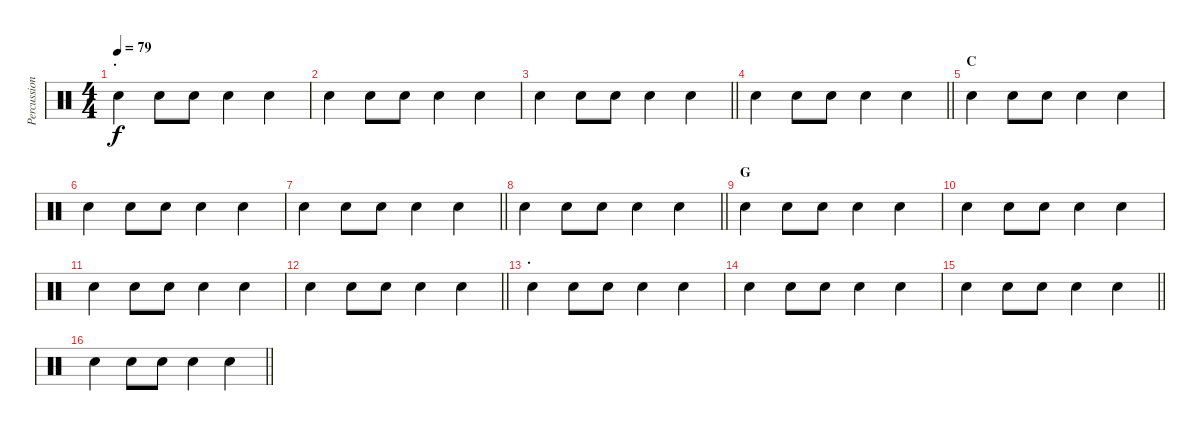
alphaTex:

\track ("Percussion" "Percussion") {instrument percussion}
\staff {score}
\articulation defaults
\ts (4 4)
\section ("" ".")
\tempo 79
\clef neutral
\ks c "Snare (hit) 2".4{dy f} "Snare (hit) 2".8 "Snare (hit) 2".8 "Snare (hit) 2".4 "Snare (hit) 2".4
|
"Snare (hit) 2".4 "Snare (hit) 2".8 "Snare (hit) 2".8 "Snare (hit) 2".4 "Snare (hit) 2".4 |
\barLineRight lightlight "Snare (hit) 2".4 "Snare (hit) 2".8 "Snare (hit) 2".8 "Snare (hit) 2".4 "Snare (hit) 2".4
|
\barLineRight lightlight "Snare (hit) 2".4 "Snare (hit) 2".8 "Snare (hit) 2".8 "Snare (hit) 2".4 "Snare (hit) 2".4
|
\section ("" "C")
"Snare (hit) 2".4 "Snare (hit) 2".8 "Snare (hit) 2".8 "Snare (hit) 2".4 "Snare (hit) 2".4 |
"Snare (hit) 2".4 "Snare (hit) 2".8 "Snare (hit) 2".8 "Snare (hit) 2".4 "Snare (hit) 2".4 |
\barLineRight lightlight "Snare (hit) 2".4 "Snare (hit) 2".8 "Snare (hit) 2".8 "Snare (hit) 2".4 "Snare (hit) 2".4
|
\barLineRight lightlight "Snare (hit) 2".4 "Snare (hit) 2".8 "Snare (hit) 2".8 "Snare (hit) 2".4 "Snare (hit) 2".4
|
\section ("" "G")
"Snare (hit) 2".4 "Snare (hit) 2".8 "Snare (hit) 2".8 "Snare (hit) 2".4 "Snare (hit) 2".4 |
"Snare (hit) 2".4 "Snare (hit) 2".8 "Snare (hit) 2".8 "Snare (hit) 2".4 "Snare (hit) 2".4 |
"Snare (hit) 2".4 "Snare (hit) 2".8 "Snare (hit) 2".8 "Snare (hit) 2".4 "Snare (hit) 2".4 |
\barLineRight lightlight "Snare (hit) 2".4 "Snare (hit) 2".8 "Snare (hit) 2".8 "Snare (hit) 2".4 "Snare (hit) 2".4
|
\section ("" ".")
"Snare (hit) 2".4 "Snare (hit) 2".8 "Snare (hit) 2".8 "Snare (hit) 2".4 "Snare (hit) 2".4 |
"Snare (hit) 2".4 "Snare (hit) 2".8 "Snare (hit) 2".8 "Snare (hit) 2".4 "Snare (hit) 2".4 |
\barLineRight lightlight "Snare (hit) 2".4 "Snare (hit) 2".8 "Snare (hit) 2".8 "Snare (hit) 2".4 "Snare (hit) 2".4
|
\barLineRight lightlight "Snare (hit) 2".4 "Snare (hit) 2".8 "Snare (hit) 2".8 "Snare (hit) 2".4 "Snare (hit) 2".4
